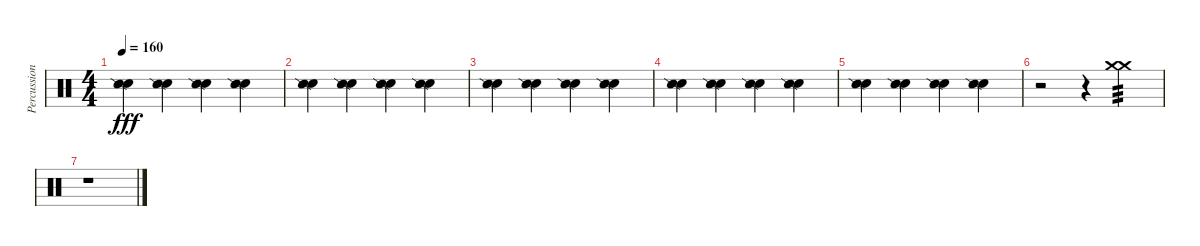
\track ("Percussion 2" "Percussion") {instrument percussion}
\staff {score}
\articulation defaults
\ts (4 4)
\tempo 160
\clef neutral
\ks c
("Hand Clap (hit)" "Snare (side stick) 2").4{dy fff} ("Hand Clap (hit)" "Snare (side stick) 2").4 ("Hand Clap (hit)" "Snare (side stick) 2").4 ("Hand Clap (hit)" "Snare (side stick) 2").4 |
("Hand Clap (hit)" "Snare (side stick) 2").4 ("Hand Clap (hit)" "Snare (side stick) 2").4 ("Hand Clap (hit)" "Snare (side stick) 2").4 ("Hand Clap (hit)" "Snare (side stick) 2").4 |
("Hand Clap (hit)" "Snare (side stick) 2").4 ("Hand Clap (hit)" "Snare (side stick) 2").4 ("Hand Clap (hit)" "Snare (side stick) 2").4 ("Hand Clap (hit)" "Snare (side stick) 2").4 |
("Hand Clap (hit)" "Snare (side stick) 2").4 ("Hand Clap (hit)" "Snare (side stick) 2").4 ("Hand Clap (hit)" "Snare (side stick) 2").4 ("Hand Clap (hit)" "Snare (side stick) 2").4 |
("Hand Clap (hit)" "Snare (side stick) 2").4 ("Hand Clap (hit)" "Snare (side stick) 2").4 ("Hand Clap (hit)" "Snare (side stick) 2").4 ("Hand Clap (hit)" "Snare (side stick) 2").4 |
r.2 r.4 ("Crash medium (hit)" "Crash medium (hit)").4{tp 3} |
r.1
